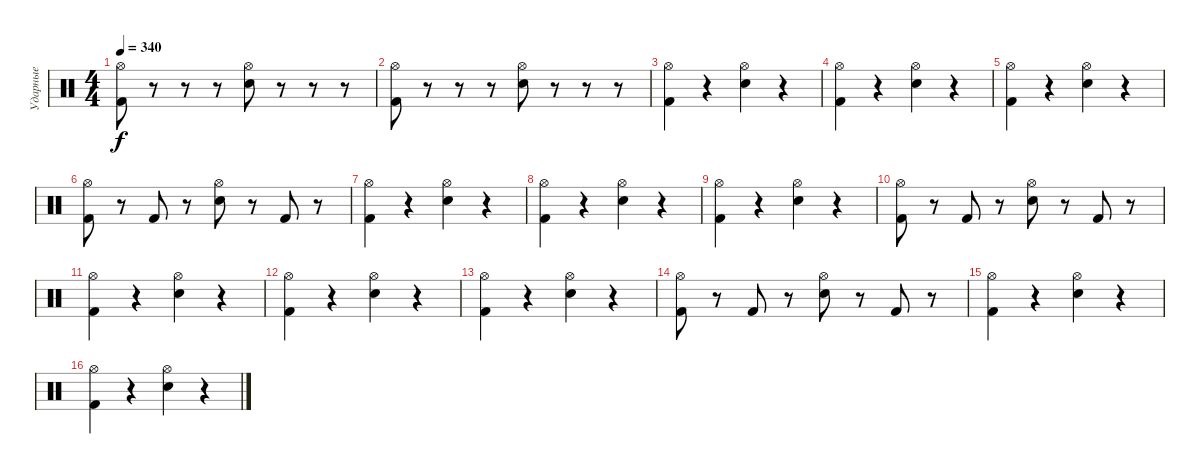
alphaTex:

\track ("Ударные" "Ударные") {instrument percussion}
\staff {score}
\articulation defaults
\ts (4 4)
\tempo 340
\clef neutral
\ks c
("Kick (hit) 2" "Hi-Hat (open)").8{dy f} r.8 r.8 r.8 ("Electric Snare (hit)" "Hi-Hat (open)").8 r.8 r.8 r.8 |
("Kick (hit) 2" "Hi-Hat (open)").8 r.8 r.8 r.8 ("Electric Snare (hit)" "Hi-Hat (open)").8 r.8 r.8 r.8 |
("Kick (hit) 2" "Hi-Hat (open)").4 r.4 ("Electric Snare (hit)" "Hi-Hat (open)").4 r.4 |
("Kick (hit) 2" "Hi-Hat (open)").4 r.4 ("Electric Snare (hit)" "Hi-Hat (open)").4 r.4 |
("Kick (hit) 2" "Hi-Hat (open)").4 r.4 ("Electric Snare (hit)" "Hi-Hat (open)").4 r.4 |
("Kick (hit) 2" "Hi-Hat (open)").8 r.8 "Kick (hit) 2".8 r.8 ("Electric Snare (hit)" "Hi-Hat (open)").8 r.8 "Kick (hit) 2".8 r.8 |
("Kick (hit) 2" "Hi-Hat (open)").4 r.4 ("Electric Snare (hit)" "Hi-Hat (open)").4 r.4 |
("Kick (hit) 2" "Hi-Hat (open)").4 r.4 ("Electric Snare (hit)" "Hi-Hat (open)").4 r.4 |
("Kick (hit) 2" "Hi-Hat (open)").4 r.4 ("Electric Snare (hit)" "Hi-Hat (open)").4 r.4 |
("Kick (hit) 2" "Hi-Hat (open)").8 r.8 "Kick (hit) 2".8 r.8 ("Electric Snare (hit)" "Hi-Hat (open)").8 r.8 "Kick (hit) 2".8 r.8 |
("Kick (hit) 2" "Hi-Hat (open)").4 r.4 ("Electric Snare (hit)" "Hi-Hat (open)").4 r.4 |
("Kick (hit) 2" "Hi-Hat (open)").4 r.4 ("Electric Snare (hit)" "Hi-Hat (open)").4 r.4 |
("Kick (hit) 2" "Hi-Hat (open)").4 r.4 ("Electric Snare (hit)" "Hi-Hat (open)").4 r.4 |
("Kick (hit) 2" "Hi-Hat (open)").8 r.8 "Kick (hit) 2".8 r.8 ("Electric Snare (hit)" "Hi-Hat (open)").8 r.8 "Kick (hit) 2".8 r.8 |
("Kick (hit) 2" "Hi-Hat (open)").4 r.4 ("Electric Snare (hit)" "Hi-Hat (open)").4 r.4 |
("Kick (hit) 2" "Hi-Hat (open)").4 r.4 ("Electric Snare (hit)" "Hi-Hat (open)").4 r.4
